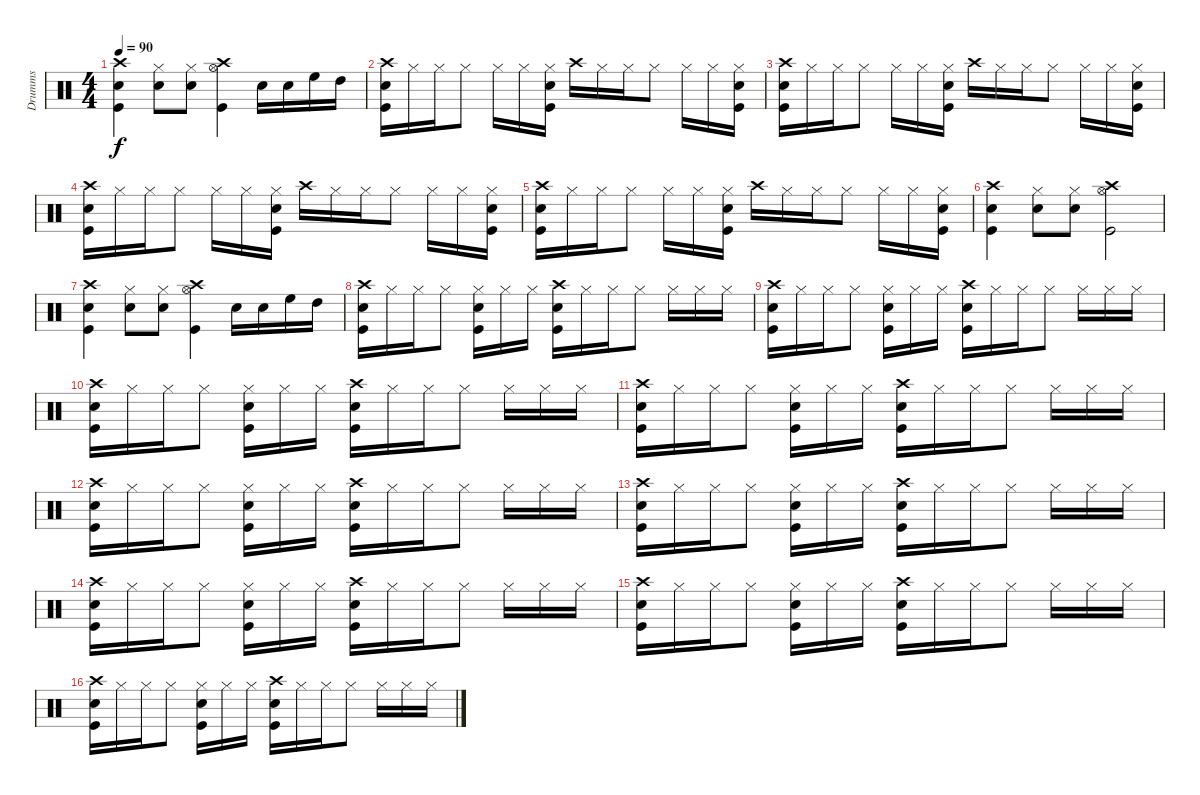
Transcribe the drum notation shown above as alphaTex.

\track ("Drumms" "Drumms") {instrument percussion}
\staff {score}
\articulation defaults
\ts (4 4)
\tempo 90
\clef neutral
\ks c
("Snare (hit) 2" "Kick (hit)" "Crash high (hit)").4{dy f} ("Hi-Hat (closed)" "Snare (hit) 2").8 ("Hi-Hat (closed)" "Snare (hit) 2").8 ("Hi-Hat (open)" "Kick (hit)" "Crash high (hit)").4 "Snare (hit) 2".16 "Snare (hit) 2".16 "High Floor Tom (hit)".16 "High Tom (hit)".16 |
("Crash high (hit)" "Snare (hit) 2" "Kick (hit)").16 "Hi-Hat (closed)".16 "Hi-Hat (closed)".16 "Hi-Hat (closed)".8 "Hi-Hat (closed)".16 "Hi-Hat (closed)".16 ("Hi-Hat (closed)" "Snare (hit) 2" "Kick (hit)").16 "Crash high (hit)".16 "Hi-Hat (closed)".16 "Hi-Hat (closed)".16 "Hi-Hat (closed)".8 "Hi-Hat (closed)".16 "Hi-Hat (closed)".16 ("Hi-Hat (closed)" "Snare (hit) 2" "Kick (hit)").16 |
("Crash high (hit)" "Snare (hit) 2" "Kick (hit)").16 "Hi-Hat (closed)".16 "Hi-Hat (closed)".16 "Hi-Hat (closed)".8 "Hi-Hat (closed)".16 "Hi-Hat (closed)".16 ("Hi-Hat (closed)" "Snare (hit) 2" "Kick (hit)").16 "Crash high (hit)".16 "Hi-Hat (closed)".16 "Hi-Hat (closed)".16 "Hi-Hat (closed)".8 "Hi-Hat (closed)".16 "Hi-Hat (closed)".16 ("Hi-Hat (closed)" "Snare (hit) 2" "Kick (hit)").16 |
("Crash high (hit)" "Snare (hit) 2" "Kick (hit)").16 "Hi-Hat (closed)".16 "Hi-Hat (closed)".16 "Hi-Hat (closed)".8 "Hi-Hat (closed)".16 "Hi-Hat (closed)".16 ("Hi-Hat (closed)" "Snare (hit) 2" "Kick (hit)").16 "Crash high (hit)".16 "Hi-Hat (closed)".16 "Hi-Hat (closed)".16 "Hi-Hat (closed)".8 "Hi-Hat (closed)".16 "Hi-Hat (closed)".16 ("Hi-Hat (closed)" "Snare (hit) 2" "Kick (hit)").16 |
("Crash high (hit)" "Snare (hit) 2" "Kick (hit)").16 "Hi-Hat (closed)".16 "Hi-Hat (closed)".16 "Hi-Hat (closed)".8 "Hi-Hat (closed)".16 "Hi-Hat (closed)".16 ("Hi-Hat (closed)" "Snare (hit) 2" "Kick (hit)").16 "Crash high (hit)".16 "Hi-Hat (closed)".16 "Hi-Hat (closed)".16 "Hi-Hat (closed)".8 "Hi-Hat (closed)".16 "Hi-Hat (closed)".16 ("Hi-Hat (closed)" "Snare (hit) 2" "Kick (hit)").16 |
("Snare (hit) 2" "Kick (hit)" "Crash high (hit)").4 ("Hi-Hat (closed)" "Snare (hit) 2").8 ("Hi-Hat (closed)" "Snare (hit) 2").8 ("Hi-Hat (open)" "Kick (hit)" "Crash high (hit)").2 |
("Snare (hit) 2" "Kick (hit)" "Crash high (hit)").4 ("Hi-Hat (closed)" "Snare (hit) 2").8 ("Hi-Hat (closed)" "Snare (hit) 2").8 ("Hi-Hat (open)" "Kick (hit)" "Crash high (hit)").4 "Snare (hit) 2".16 "Snare (hit) 2".16 "High Floor Tom (hit)".16 "High Tom (hit)".16 |
("Crash high (hit)" "Snare (hit) 2" "Kick (hit)").16 "Hi-Hat (closed)".16 "Hi-Hat (closed)".16 "Hi-Hat (closed)".8 ("Hi-Hat (closed)" "Snare (hit) 2" "Kick (hit)").16 "Hi-Hat (closed)".16 "Hi-Hat (closed)".16 ("Crash high (hit)" "Snare (hit) 2" "Kick (hit)").16 "Hi-Hat (closed)".16 "Hi-Hat (closed)".16 "Hi-Hat (closed)".8 "Hi-Hat (closed)".16 "Hi-Hat (closed)".16 "Hi-Hat (closed)".16 |
("Crash high (hit)" "Snare (hit) 2" "Kick (hit)").16 "Hi-Hat (closed)".16 "Hi-Hat (closed)".16 "Hi-Hat (closed)".8 ("Hi-Hat (closed)" "Snare (hit) 2" "Kick (hit)").16 "Hi-Hat (closed)".16 "Hi-Hat (closed)".16 ("Crash high (hit)" "Snare (hit) 2" "Kick (hit)").16 "Hi-Hat (closed)".16 "Hi-Hat (closed)".16 "Hi-Hat (closed)".8 "Hi-Hat (closed)".16 "Hi-Hat (closed)".16 "Hi-Hat (closed)".16 |
("Crash high (hit)" "Snare (hit) 2" "Kick (hit)").16 "Hi-Hat (closed)".16 "Hi-Hat (closed)".16 "Hi-Hat (closed)".8 ("Hi-Hat (closed)" "Snare (hit) 2" "Kick (hit)").16 "Hi-Hat (closed)".16 "Hi-Hat (closed)".16 ("Crash high (hit)" "Snare (hit) 2" "Kick (hit)").16 "Hi-Hat (closed)".16 "Hi-Hat (closed)".16 "Hi-Hat (closed)".8 "Hi-Hat (closed)".16 "Hi-Hat (closed)".16 "Hi-Hat (closed)".16 |
("Crash high (hit)" "Snare (hit) 2" "Kick (hit)").16 "Hi-Hat (closed)".16 "Hi-Hat (closed)".16 "Hi-Hat (closed)".8 ("Hi-Hat (closed)" "Snare (hit) 2" "Kick (hit)").16 "Hi-Hat (closed)".16 "Hi-Hat (closed)".16 ("Crash high (hit)" "Snare (hit) 2" "Kick (hit)").16 "Hi-Hat (closed)".16 "Hi-Hat (closed)".16 "Hi-Hat (closed)".8 "Hi-Hat (closed)".16 "Hi-Hat (closed)".16 "Hi-Hat (closed)".16 |
("Crash high (hit)" "Snare (hit) 2" "Kick (hit)").16 "Hi-Hat (closed)".16 "Hi-Hat (closed)".16 "Hi-Hat (closed)".8 ("Hi-Hat (closed)" "Snare (hit) 2" "Kick (hit)").16 "Hi-Hat (closed)".16 "Hi-Hat (closed)".16 ("Crash high (hit)" "Snare (hit) 2" "Kick (hit)").16 "Hi-Hat (closed)".16 "Hi-Hat (closed)".16 "Hi-Hat (closed)".8 "Hi-Hat (closed)".16 "Hi-Hat (closed)".16 "Hi-Hat (closed)".16 |
("Crash high (hit)" "Snare (hit) 2" "Kick (hit)").16 "Hi-Hat (closed)".16 "Hi-Hat (closed)".16 "Hi-Hat (closed)".8 ("Hi-Hat (closed)" "Snare (hit) 2" "Kick (hit)").16 "Hi-Hat (closed)".16 "Hi-Hat (closed)".16 ("Crash high (hit)" "Snare (hit) 2" "Kick (hit)").16 "Hi-Hat (closed)".16 "Hi-Hat (closed)".16 "Hi-Hat (closed)".8 "Hi-Hat (closed)".16 "Hi-Hat (closed)".16 "Hi-Hat (closed)".16 |
("Crash high (hit)" "Snare (hit) 2" "Kick (hit)").16 "Hi-Hat (closed)".16 "Hi-Hat (closed)".16 "Hi-Hat (closed)".8 ("Hi-Hat (closed)" "Snare (hit) 2" "Kick (hit)").16 "Hi-Hat (closed)".16 "Hi-Hat (closed)".16 ("Crash high (hit)" "Snare (hit) 2" "Kick (hit)").16 "Hi-Hat (closed)".16 "Hi-Hat (closed)".16 "Hi-Hat (closed)".8 "Hi-Hat (closed)".16 "Hi-Hat (closed)".16 "Hi-Hat (closed)".16 |
("Crash high (hit)" "Snare (hit) 2" "Kick (hit)").16 "Hi-Hat (closed)".16 "Hi-Hat (closed)".16 "Hi-Hat (closed)".8 ("Hi-Hat (closed)" "Snare (hit) 2" "Kick (hit)").16 "Hi-Hat (closed)".16 "Hi-Hat (closed)".16 ("Crash high (hit)" "Snare (hit) 2" "Kick (hit)").16 "Hi-Hat (closed)".16 "Hi-Hat (closed)".16 "Hi-Hat (closed)".8 "Hi-Hat (closed)".16 "Hi-Hat (closed)".16 "Hi-Hat (closed)".16 |
("Crash high (hit)" "Snare (hit) 2" "Kick (hit)").16 "Hi-Hat (closed)".16 "Hi-Hat (closed)".16 "Hi-Hat (closed)".8 ("Hi-Hat (closed)" "Snare (hit) 2" "Kick (hit)").16 "Hi-Hat (closed)".16 "Hi-Hat (closed)".16 ("Crash high (hit)" "Snare (hit) 2" "Kick (hit)").16 "Hi-Hat (closed)".16 "Hi-Hat (closed)".16 "Hi-Hat (closed)".8 "Hi-Hat (closed)".16 "Hi-Hat (closed)".16 "Hi-Hat (closed)".16
